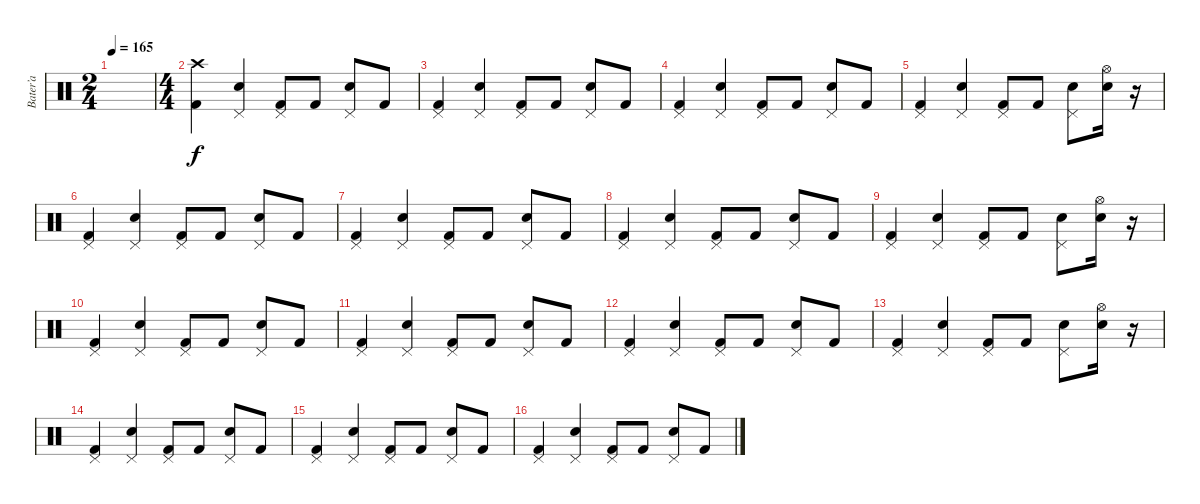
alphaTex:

\track ("Bater’a" "Bater’a") {instrument percussion}
\staff {score}
\articulation defaults
\ts (2 4)
\tempo 165
\clef neutral
\ks c
|
\ts (4 4)
("Crash high (hit)" "Kick (hit) 2").4 ("Pedal Hi-Hat (hit)" "Electric Snare (hit)").4 ("Pedal Hi-Hat (hit)" "Kick (hit) 2").8 "Kick (hit) 2".8 ("Pedal Hi-Hat (hit)" "Electric Snare (hit)").8 "Kick (hit) 2".8 |
("Pedal Hi-Hat (hit)" "Kick (hit) 2").4 ("Pedal Hi-Hat (hit)" "Electric Snare (hit)").4 ("Pedal Hi-Hat (hit)" "Kick (hit) 2").8 "Kick (hit) 2".8 ("Pedal Hi-Hat (hit)" "Electric Snare (hit)").8 "Kick (hit) 2".8 |
("Pedal Hi-Hat (hit)" "Kick (hit) 2").4 ("Pedal Hi-Hat (hit)" "Electric Snare (hit)").4 ("Pedal Hi-Hat (hit)" "Kick (hit) 2").8 "Kick (hit) 2".8 ("Pedal Hi-Hat (hit)" "Electric Snare (hit)").8 "Kick (hit) 2".8 |
("Pedal Hi-Hat (hit)" "Kick (hit) 2").4 ("Pedal Hi-Hat (hit)" "Electric Snare (hit)").4 ("Pedal Hi-Hat (hit)" "Kick (hit) 2").8 "Kick (hit) 2".8 ("Pedal Hi-Hat (hit)" "Electric Snare (hit)").8 ("Hi-Hat (open)" "Electric Snare (hit)").16 r.16 |
("Pedal Hi-Hat (hit)" "Kick (hit) 2").4 ("Pedal Hi-Hat (hit)" "Electric Snare (hit)").4 ("Pedal Hi-Hat (hit)" "Kick (hit) 2").8 "Kick (hit) 2".8 ("Pedal Hi-Hat (hit)" "Electric Snare (hit)").8 "Kick (hit) 2".8 |
("Pedal Hi-Hat (hit)" "Kick (hit) 2").4 ("Pedal Hi-Hat (hit)" "Electric Snare (hit)").4 ("Pedal Hi-Hat (hit)" "Kick (hit) 2").8 "Kick (hit) 2".8 ("Pedal Hi-Hat (hit)" "Electric Snare (hit)").8 "Kick (hit) 2".8 |
("Pedal Hi-Hat (hit)" "Kick (hit) 2").4 ("Pedal Hi-Hat (hit)" "Electric Snare (hit)").4 ("Pedal Hi-Hat (hit)" "Kick (hit) 2").8 "Kick (hit) 2".8 ("Pedal Hi-Hat (hit)" "Electric Snare (hit)").8 "Kick (hit) 2".8 |
("Pedal Hi-Hat (hit)" "Kick (hit) 2").4 ("Pedal Hi-Hat (hit)" "Electric Snare (hit)").4 ("Pedal Hi-Hat (hit)" "Kick (hit) 2").8 "Kick (hit) 2".8 ("Pedal Hi-Hat (hit)" "Electric Snare (hit)").8 ("Hi-Hat (open)" "Electric Snare (hit)").16 r.16 |
("Pedal Hi-Hat (hit)" "Kick (hit) 2").4 ("Pedal Hi-Hat (hit)" "Electric Snare (hit)").4 ("Pedal Hi-Hat (hit)" "Kick (hit) 2").8 "Kick (hit) 2".8 ("Pedal Hi-Hat (hit)" "Electric Snare (hit)").8 "Kick (hit) 2".8 |
("Pedal Hi-Hat (hit)" "Kick (hit) 2").4 ("Pedal Hi-Hat (hit)" "Electric Snare (hit)").4 ("Pedal Hi-Hat (hit)" "Kick (hit) 2").8 "Kick (hit) 2".8 ("Pedal Hi-Hat (hit)" "Electric Snare (hit)").8 "Kick (hit) 2".8 |
("Pedal Hi-Hat (hit)" "Kick (hit) 2").4 ("Pedal Hi-Hat (hit)" "Electric Snare (hit)").4 ("Pedal Hi-Hat (hit)" "Kick (hit) 2").8 "Kick (hit) 2".8 ("Pedal Hi-Hat (hit)" "Electric Snare (hit)").8 "Kick (hit) 2".8 |
("Pedal Hi-Hat (hit)" "Kick (hit) 2").4 ("Pedal Hi-Hat (hit)" "Electric Snare (hit)").4 ("Pedal Hi-Hat (hit)" "Kick (hit) 2").8 "Kick (hit) 2".8 ("Pedal Hi-Hat (hit)" "Electric Snare (hit)").8 ("Hi-Hat (open)" "Electric Snare (hit)").16 r.16 |
("Pedal Hi-Hat (hit)" "Kick (hit) 2").4 ("Pedal Hi-Hat (hit)" "Electric Snare (hit)").4 ("Pedal Hi-Hat (hit)" "Kick (hit) 2").8 "Kick (hit) 2".8 ("Pedal Hi-Hat (hit)" "Electric Snare (hit)").8 "Kick (hit) 2".8 |
("Pedal Hi-Hat (hit)" "Kick (hit) 2").4 ("Pedal Hi-Hat (hit)" "Electric Snare (hit)").4 ("Pedal Hi-Hat (hit)" "Kick (hit) 2").8 "Kick (hit) 2".8 ("Pedal Hi-Hat (hit)" "Electric Snare (hit)").8 "Kick (hit) 2".8 |
("Pedal Hi-Hat (hit)" "Kick (hit) 2").4 ("Pedal Hi-Hat (hit)" "Electric Snare (hit)").4 ("Pedal Hi-Hat (hit)" "Kick (hit) 2").8 "Kick (hit) 2".8 ("Pedal Hi-Hat (hit)" "Electric Snare (hit)").8 "Kick (hit) 2".8
